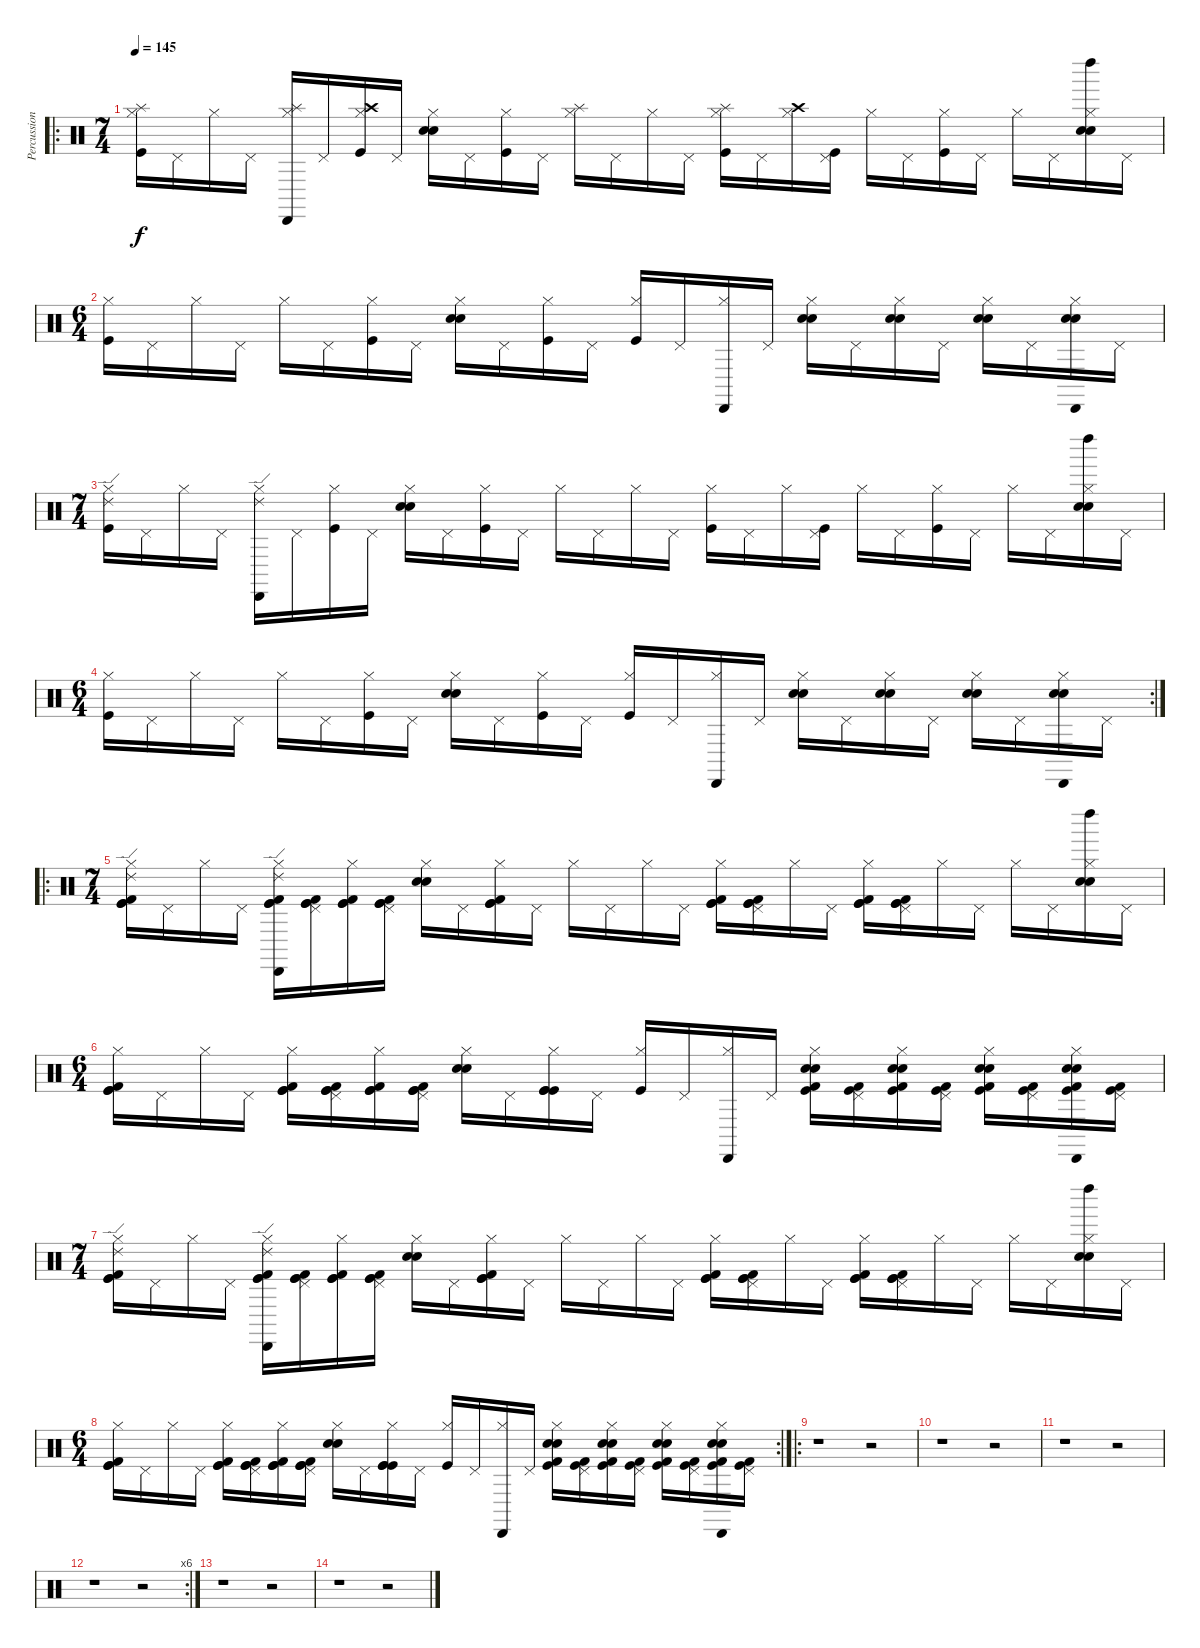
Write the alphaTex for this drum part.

\track ("Percussion" "Percussion") {instrument percussion}
\staff {score}
\articulation defaults
\ro
\ts (7 4)
\tempo 145
\clef neutral
\ks c
("Hi-Hat (closed)" "Splash (hit)" "Kick (hit)").16{dy f} "Pedal Hi-Hat (hit)".16 "Hi-Hat (closed)".16 "Pedal Hi-Hat (hit)".16 ("Hi-Hat (closed)" "Cabasa (hit)" "Splash (hit)").16 "Pedal Hi-Hat (hit)".16 ("Hi-Hat (closed)" "Crash high (hit)" "Kick (hit)").16 "Pedal Hi-Hat (hit)".16 ("Hi-Hat (closed)" "Electric Snare (hit)" "Snare (hit) 2").16 "Pedal Hi-Hat (hit)".16 ("Hi-Hat (closed)" "Kick (hit)").16 "Pedal Hi-Hat (hit)".16 ("Hi-Hat (closed)" "Splash (hit)").16 "Pedal Hi-Hat (hit)".16 "Hi-Hat (closed)".16 "Pedal Hi-Hat (hit)".16 ("Hi-Hat (closed)" "Splash (hit)" "Kick (hit)").16 "Pedal Hi-Hat (hit)".16 ("Hi-Hat (closed)" "Crash high (hit)").16 ("Pedal Hi-Hat (hit)" "Kick (hit)").16 "Hi-Hat (closed)".16 "Pedal Hi-Hat (hit)".16 ("Hi-Hat (closed)" "Kick (hit)").16 "Pedal Hi-Hat (hit)".16 "Hi-Hat (closed)".16 "Pedal Hi-Hat (hit)".16 ("Hi-Hat (closed)" "Left Maraca (hit)" "Electric Snare (hit)" "Snare (hit) 2").16 "Pedal Hi-Hat (hit)".16 |
\ts (6 4)
("Hi-Hat (closed)" "Kick (hit)").16 "Pedal Hi-Hat (hit)".16 "Hi-Hat (closed)".16 "Pedal Hi-Hat (hit)".16 "Hi-Hat (closed)".16 "Pedal Hi-Hat (hit)".16 ("Hi-Hat (closed)" "Kick (hit)").16 "Pedal Hi-Hat (hit)".16 ("Hi-Hat (closed)" "Electric Snare (hit)" "Snare (hit) 2").16 "Pedal Hi-Hat (hit)".16 ("Hi-Hat (closed)" "Kick (hit)").16 "Pedal Hi-Hat (hit)".16 ("Hi-Hat (closed)" "Kick (hit)").16 "Pedal Hi-Hat (hit)".16 ("Hi-Hat (closed)" "Cabasa (hit)").16 "Pedal Hi-Hat (hit)".16 ("Hi-Hat (closed)" "Electric Snare (hit)" "Snare (hit) 2").16 "Pedal Hi-Hat (hit)".16 ("Hi-Hat (closed)" "Electric Snare (hit)" "Snare (hit) 2").16 "Pedal Hi-Hat (hit)".16 ("Hi-Hat (closed)" "Electric Snare (hit)" "Snare (hit) 2").16 "Pedal Hi-Hat (hit)".16 ("Hi-Hat (closed)" "Cabasa (hit)" "Electric Snare (hit)" "Snare (hit) 2").16 "Pedal Hi-Hat (hit)".16 |
\ts (7 4)
("Hi-Hat (closed)" "Ride (edge) 2" "Kick (hit)").16 "Pedal Hi-Hat (hit)".16 "Hi-Hat (closed)".16 "Pedal Hi-Hat (hit)".16 ("Hi-Hat (closed)" "Cabasa (hit)" "Ride (edge) 2").16 "Pedal Hi-Hat (hit)".16 ("Hi-Hat (closed)" "Kick (hit)").16 "Pedal Hi-Hat (hit)".16 ("Hi-Hat (closed)" "Electric Snare (hit)" "Snare (hit) 2").16 "Pedal Hi-Hat (hit)".16 ("Hi-Hat (closed)" "Kick (hit)").16 "Pedal Hi-Hat (hit)".16 "Hi-Hat (closed)".16 "Pedal Hi-Hat (hit)".16 "Hi-Hat (closed)".16 "Pedal Hi-Hat (hit)".16 ("Hi-Hat (closed)" "Kick (hit)").16 "Pedal Hi-Hat (hit)".16 "Hi-Hat (closed)".16 ("Pedal Hi-Hat (hit)" "Kick (hit)").16 "Hi-Hat (closed)".16 "Pedal Hi-Hat (hit)".16 ("Hi-Hat (closed)" "Kick (hit)").16 "Pedal Hi-Hat (hit)".16 "Hi-Hat (closed)".16 "Pedal Hi-Hat (hit)".16 ("Hi-Hat (closed)" "Left Maraca (hit)" "Electric Snare (hit)" "Snare (hit) 2").16 "Pedal Hi-Hat (hit)".16 |
\rc 2
\ts (6 4)
("Hi-Hat (closed)" "Kick (hit)").16 "Pedal Hi-Hat (hit)".16 "Hi-Hat (closed)".16 "Pedal Hi-Hat (hit)".16 "Hi-Hat (closed)".16 "Pedal Hi-Hat (hit)".16 ("Hi-Hat (closed)" "Kick (hit)").16 "Pedal Hi-Hat (hit)".16 ("Hi-Hat (closed)" "Electric Snare (hit)" "Snare (hit) 2").16 "Pedal Hi-Hat (hit)".16 ("Hi-Hat (closed)" "Kick (hit)").16 "Pedal Hi-Hat (hit)".16 ("Hi-Hat (closed)" "Kick (hit)").16 "Pedal Hi-Hat (hit)".16 ("Hi-Hat (closed)" "Cabasa (hit)").16 "Pedal Hi-Hat (hit)".16 ("Hi-Hat (closed)" "Electric Snare (hit)" "Snare (hit) 2").16 "Pedal Hi-Hat (hit)".16 ("Hi-Hat (closed)" "Electric Snare (hit)" "Snare (hit) 2").16 "Pedal Hi-Hat (hit)".16 ("Hi-Hat (closed)" "Electric Snare (hit)" "Snare (hit) 2").16 "Pedal Hi-Hat (hit)".16 ("Hi-Hat (closed)" "Cabasa (hit)" "Electric Snare (hit)" "Snare (hit) 2").16 "Pedal Hi-Hat (hit)".16 |
\ro
\ts (7 4)
("Hi-Hat (closed)" "Ride (edge) 2" "Kick (hit)" "Kick (hit) 2" "Kick (hit)").16 "Pedal Hi-Hat (hit)".16 "Hi-Hat (closed)".16 "Pedal Hi-Hat (hit)".16 ("Hi-Hat (closed)" "Cabasa (hit)" "Ride (edge) 2" "Kick (hit) 2" "Kick (hit)" "Kick (hit)").16 ("Pedal Hi-Hat (hit)" "Kick (hit) 2" "Kick (hit)" "Kick (hit)").16 ("Hi-Hat (closed)" "Kick (hit) 2" "Kick (hit)" "Kick (hit)").16 ("Pedal Hi-Hat (hit)" "Kick (hit) 2" "Kick (hit)" "Kick (hit)").16 ("Hi-Hat (closed)" "Electric Snare (hit)" "Snare (hit) 2").16 "Pedal Hi-Hat (hit)".16 ("Hi-Hat (closed)" "Kick (hit) 2" "Kick (hit)" "Kick (hit)").16 "Pedal Hi-Hat (hit)".16 "Hi-Hat (closed)".16 "Pedal Hi-Hat (hit)".16 "Hi-Hat (closed)".16 "Pedal Hi-Hat (hit)".16 ("Hi-Hat (closed)" "Kick (hit) 2" "Kick (hit)" "Kick (hit)").16 ("Pedal Hi-Hat (hit)" "Kick (hit) 2" "Kick (hit)" "Kick (hit)").16 "Hi-Hat (closed)".16 "Pedal Hi-Hat (hit)".16 ("Hi-Hat (closed)" "Kick (hit) 2" "Kick (hit)" "Kick (hit)").16 ("Pedal Hi-Hat (hit)" "Kick (hit) 2" "Kick (hit)" "Kick (hit)").16 "Hi-Hat (closed)".16 "Pedal Hi-Hat (hit)".16 "Hi-Hat (closed)".16 "Pedal Hi-Hat (hit)".16 ("Hi-Hat (closed)" "Left Maraca (hit)" "Electric Snare (hit)" "Snare (hit) 2").16 "Pedal Hi-Hat (hit)".16 |
\ts (6 4)
("Hi-Hat (closed)" "Kick (hit) 2" "Kick (hit)" "Kick (hit)").16 "Pedal Hi-Hat (hit)".16 "Hi-Hat (closed)".16 "Pedal Hi-Hat (hit)".16 ("Hi-Hat (closed)" "Kick (hit) 2" "Kick (hit)" "Kick (hit)").16 ("Pedal Hi-Hat (hit)" "Kick (hit) 2" "Kick (hit)" "Kick (hit)").16 ("Hi-Hat (closed)" "Kick (hit) 2" "Kick (hit)" "Kick (hit)").16 ("Pedal Hi-Hat (hit)" "Kick (hit) 2" "Kick (hit)" "Kick (hit)").16 ("Hi-Hat (closed)" "Electric Snare (hit)" "Snare (hit) 2").16 "Pedal Hi-Hat (hit)".16 ("Hi-Hat (closed)" "Kick (hit)" "Kick (hit)" "Kick (hit)").16 "Pedal Hi-Hat (hit)".16 ("Hi-Hat (closed)" "Kick (hit)").16 "Pedal Hi-Hat (hit)".16 ("Hi-Hat (closed)" "Cabasa (hit)").16 "Pedal Hi-Hat (hit)".16 ("Hi-Hat (closed)" "Kick (hit) 2" "Electric Snare (hit)" "Snare (hit) 2" "Kick (hit)").16 ("Pedal Hi-Hat (hit)" "Kick (hit) 2" "Kick (hit)").16 ("Hi-Hat (closed)" "Kick (hit) 2" "Electric Snare (hit)" "Snare (hit) 2" "Kick (hit)").16 ("Pedal Hi-Hat (hit)" "Kick (hit) 2" "Kick (hit)").16 ("Hi-Hat (closed)" "Kick (hit) 2" "Electric Snare (hit)" "Snare (hit) 2" "Kick (hit)").16 ("Pedal Hi-Hat (hit)" "Kick (hit) 2" "Kick (hit)").16 ("Hi-Hat (closed)" "Cabasa (hit)" "Kick (hit) 2" "Electric Snare (hit)" "Snare (hit) 2" "Kick (hit)").16 ("Pedal Hi-Hat (hit)" "Kick (hit) 2" "Kick (hit)").16 |
\ts (7 4)
("Hi-Hat (closed)" "Ride (edge) 2" "Kick (hit)" "Kick (hit) 2" "Kick (hit)").16 "Pedal Hi-Hat (hit)".16 "Hi-Hat (closed)".16 "Pedal Hi-Hat (hit)".16 ("Hi-Hat (closed)" "Cabasa (hit)" "Ride (edge) 2" "Kick (hit) 2" "Kick (hit)" "Kick (hit)").16 ("Pedal Hi-Hat (hit)" "Kick (hit) 2" "Kick (hit)" "Kick (hit)").16 ("Hi-Hat (closed)" "Kick (hit) 2" "Kick (hit)" "Kick (hit)").16 ("Pedal Hi-Hat (hit)" "Kick (hit) 2" "Kick (hit)" "Kick (hit)").16 ("Hi-Hat (closed)" "Electric Snare (hit)" "Snare (hit) 2").16 "Pedal Hi-Hat (hit)".16 ("Hi-Hat (closed)" "Kick (hit) 2" "Kick (hit)" "Kick (hit)").16 "Pedal Hi-Hat (hit)".16 "Hi-Hat (closed)".16 "Pedal Hi-Hat (hit)".16 "Hi-Hat (closed)".16 "Pedal Hi-Hat (hit)".16 ("Hi-Hat (closed)" "Kick (hit) 2" "Kick (hit)" "Kick (hit)").16 ("Pedal Hi-Hat (hit)" "Kick (hit) 2" "Kick (hit)" "Kick (hit)").16 "Hi-Hat (closed)".16 "Pedal Hi-Hat (hit)".16 ("Hi-Hat (closed)" "Kick (hit) 2" "Kick (hit)" "Kick (hit)").16 ("Pedal Hi-Hat (hit)" "Kick (hit) 2" "Kick (hit)" "Kick (hit)").16 "Hi-Hat (closed)".16 "Pedal Hi-Hat (hit)".16 "Hi-Hat (closed)".16 "Pedal Hi-Hat (hit)".16 ("Hi-Hat (closed)" "Left Maraca (hit)" "Electric Snare (hit)" "Snare (hit) 2").16 "Pedal Hi-Hat (hit)".16 |
\rc 2
\ts (6 4)
("Hi-Hat (closed)" "Kick (hit) 2" "Kick (hit)" "Kick (hit)").16 "Pedal Hi-Hat (hit)".16 "Hi-Hat (closed)".16 "Pedal Hi-Hat (hit)".16 ("Hi-Hat (closed)" "Kick (hit) 2" "Kick (hit)" "Kick (hit)").16 ("Pedal Hi-Hat (hit)" "Kick (hit) 2" "Kick (hit)" "Kick (hit)").16 ("Hi-Hat (closed)" "Kick (hit) 2" "Kick (hit)" "Kick (hit)").16 ("Pedal Hi-Hat (hit)" "Kick (hit) 2" "Kick (hit)" "Kick (hit)").16 ("Hi-Hat (closed)" "Electric Snare (hit)" "Snare (hit) 2").16 "Pedal Hi-Hat (hit)".16 ("Hi-Hat (closed)" "Kick (hit)" "Kick (hit)" "Kick (hit)").16 "Pedal Hi-Hat (hit)".16 ("Hi-Hat (closed)" "Kick (hit)").16 "Pedal Hi-Hat (hit)".16 ("Hi-Hat (closed)" "Cabasa (hit)").16 "Pedal Hi-Hat (hit)".16 ("Hi-Hat (closed)" "Kick (hit) 2" "Electric Snare (hit)" "Snare (hit) 2" "Kick (hit)").16 ("Pedal Hi-Hat (hit)" "Kick (hit) 2" "Kick (hit)").16 ("Hi-Hat (closed)" "Kick (hit) 2" "Electric Snare (hit)" "Snare (hit) 2" "Kick (hit)").16 ("Pedal Hi-Hat (hit)" "Kick (hit) 2" "Kick (hit)").16 ("Hi-Hat (closed)" "Kick (hit) 2" "Electric Snare (hit)" "Snare (hit) 2" "Kick (hit)").16 ("Pedal Hi-Hat (hit)" "Kick (hit) 2" "Kick (hit)").16 ("Hi-Hat (closed)" "Cabasa (hit)" "Kick (hit) 2" "Electric Snare (hit)" "Snare (hit) 2" "Kick (hit)").16 ("Pedal Hi-Hat (hit)" "Kick (hit) 2" "Kick (hit)").16 |
\ro
r.1 r.2 |
r.1 r.2 |
r.1 r.2 |
\rc 6
r.1 r.2 |
r.1 r.2 |
r.1 r.2
